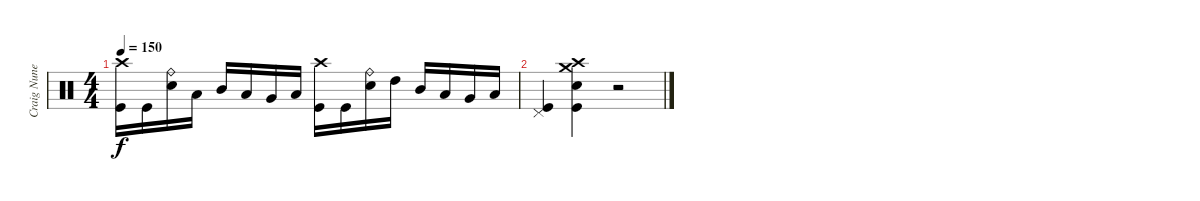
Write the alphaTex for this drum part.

\track ("Craig Nunenmacher" "Craig Nune") {instrument percussion}
\staff {score}
\articulation defaults
\ts (4 4)
\tempo 150
\clef neutral
\ks c
("Crash high (hit)" "Kick (hit)").16{dy f} "Kick (hit)".16 ("Ride (bell)" "Snare (hit) 2").16 "Low Tom (hit)".16 "Mid Tom (hit)".16 "Low Tom (hit)".16 "Very Low Tom (hit)".16 "Low Tom (hit)".16 ("Crash high (hit)" "Kick (hit)").16 "Kick (hit)".16 ("Ride (bell)" "Snare (hit) 2").16 "High Tom (hit)".16 "Mid Tom (hit)".16 "Low Tom (hit)".16 "Very Low Tom (hit)".16 "Low Tom (hit)".16 |
("Pedal Hi-Hat (hit)" "Kick (hit)").4 ("Crash medium (hit)" "Crash high (hit)" "Snare (hit) 2" "Kick (hit)").4 r.2
